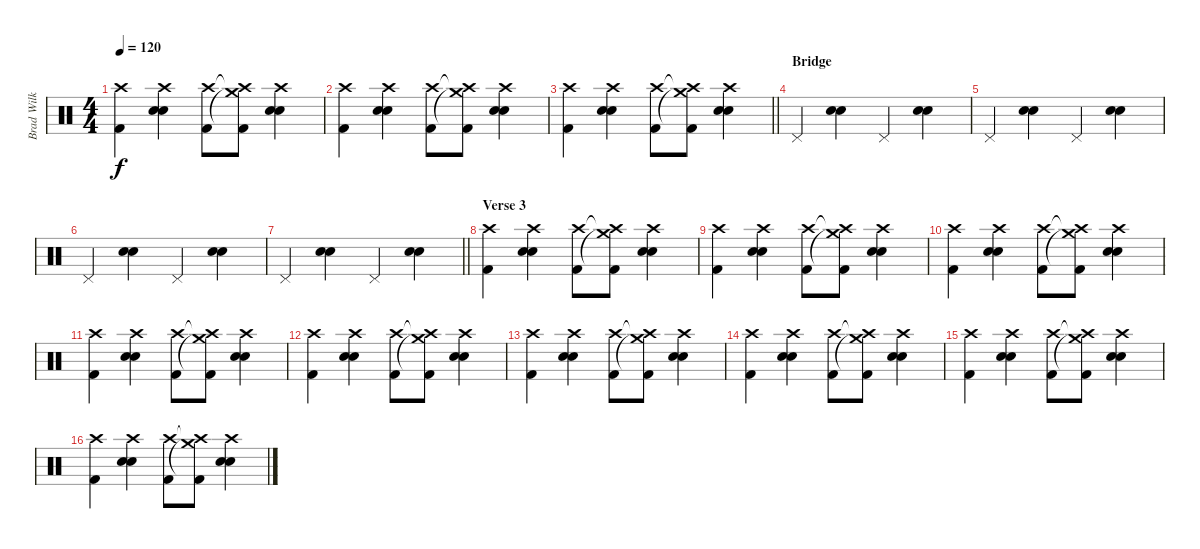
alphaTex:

\track ("Brad Wilk" "Brad Wilk") {instrument percussion}
\staff {score}
\articulation defaults
\ts (4 4)
\tempo 120
\clef neutral
\ks c
("Crash high (hit)" "Kick (hit) 2").4{dy f} ("Electric Snare (hit)" "Snare (hit) 2" "Crash high (hit)").4 ("Crash high (hit)" "Kick (hit) 2").8 ("Crash high (hit)"{t} "Crash medium (hit)"{t} "Kick (hit) 2").8 ("Electric Snare (hit)" "Snare (hit) 2" "Crash high (hit)").4 |
("Crash high (hit)" "Kick (hit) 2").4 ("Electric Snare (hit)" "Snare (hit) 2" "Crash high (hit)").4 ("Crash high (hit)" "Kick (hit) 2").8 ("Crash high (hit)"{t} "Crash medium (hit)"{t} "Kick (hit) 2").8 ("Electric Snare (hit)" "Snare (hit) 2" "Crash high (hit)").4 |
\barLineRight lightlight
("Crash high (hit)" "Kick (hit) 2").4 ("Electric Snare (hit)" "Snare (hit) 2" "Crash high (hit)").4 ("Crash high (hit)" "Kick (hit) 2").8 ("Crash high (hit)"{t} "Crash medium (hit)"{t} "Kick (hit) 2").8 ("Electric Snare (hit)" "Snare (hit) 2" "Crash high (hit)").4 |
\section ("" "Bridge")
"Pedal Hi-Hat (hit)".4 ("Electric Snare (hit)" "Snare (hit) 2").4 "Pedal Hi-Hat (hit)".4 ("Electric Snare (hit)" "Snare (hit) 2").4 |
"Pedal Hi-Hat (hit)".4 ("Electric Snare (hit)" "Snare (hit) 2").4 "Pedal Hi-Hat (hit)".4 ("Electric Snare (hit)" "Snare (hit) 2").4 |
"Pedal Hi-Hat (hit)".4 ("Electric Snare (hit)" "Snare (hit) 2").4 "Pedal Hi-Hat (hit)".4 ("Electric Snare (hit)" "Snare (hit) 2").4 |
\barLineRight lightlight "Pedal Hi-Hat (hit)".4
("Electric Snare (hit)" "Snare (hit) 2").4 "Pedal Hi-Hat (hit)".4 ("Electric Snare (hit)" "Snare (hit) 2").4 |
\section ("" "Verse 3")
("Crash high (hit)" "Kick (hit) 2").4 ("Electric Snare (hit)" "Snare (hit) 2" "Crash high (hit)").4 ("Crash high (hit)" "Kick (hit) 2").8 ("Crash high (hit)"{t} "Crash medium (hit)"{t} "Kick (hit) 2").8 ("Electric Snare (hit)" "Snare (hit) 2" "Crash high (hit)").4 |
("Crash high (hit)" "Kick (hit) 2").4 ("Electric Snare (hit)" "Snare (hit) 2" "Crash high (hit)").4 ("Crash high (hit)" "Kick (hit) 2").8 ("Crash high (hit)"{t} "Crash medium (hit)"{t} "Kick (hit) 2").8 ("Electric Snare (hit)" "Snare (hit) 2" "Crash high (hit)").4 |
("Crash high (hit)" "Kick (hit) 2").4 ("Electric Snare (hit)" "Snare (hit) 2" "Crash high (hit)").4 ("Crash high (hit)" "Kick (hit) 2").8 ("Crash high (hit)"{t} "Crash medium (hit)"{t} "Kick (hit) 2").8 ("Electric Snare (hit)" "Snare (hit) 2" "Crash high (hit)").4 |
("Crash high (hit)" "Kick (hit) 2").4 ("Electric Snare (hit)" "Snare (hit) 2" "Crash high (hit)").4 ("Crash high (hit)" "Kick (hit) 2").8 ("Crash high (hit)"{t} "Crash medium (hit)"{t} "Kick (hit) 2").8 ("Electric Snare (hit)" "Snare (hit) 2" "Crash high (hit)").4 |
("Crash high (hit)" "Kick (hit) 2").4 ("Electric Snare (hit)" "Snare (hit) 2" "Crash high (hit)").4 ("Crash high (hit)" "Kick (hit) 2").8 ("Crash high (hit)"{t} "Crash medium (hit)"{t} "Kick (hit) 2").8 ("Electric Snare (hit)" "Snare (hit) 2" "Crash high (hit)").4 |
("Crash high (hit)" "Kick (hit) 2").4 ("Electric Snare (hit)" "Snare (hit) 2" "Crash high (hit)").4 ("Crash high (hit)" "Kick (hit) 2").8 ("Crash high (hit)"{t} "Crash medium (hit)"{t} "Kick (hit) 2").8 ("Electric Snare (hit)" "Snare (hit) 2" "Crash high (hit)").4 |
("Crash high (hit)" "Kick (hit) 2").4 ("Electric Snare (hit)" "Snare (hit) 2" "Crash high (hit)").4 ("Crash high (hit)" "Kick (hit) 2").8 ("Crash high (hit)"{t} "Crash medium (hit)"{t} "Kick (hit) 2").8 ("Electric Snare (hit)" "Snare (hit) 2" "Crash high (hit)").4 |
("Crash high (hit)" "Kick (hit) 2").4 ("Electric Snare (hit)" "Snare (hit) 2" "Crash high (hit)").4 ("Crash high (hit)" "Kick (hit) 2").8 ("Crash high (hit)"{t} "Crash medium (hit)"{t} "Kick (hit) 2").8 ("Electric Snare (hit)" "Snare (hit) 2" "Crash high (hit)").4 |
("Crash high (hit)" "Kick (hit) 2").4 ("Electric Snare (hit)" "Snare (hit) 2" "Crash high (hit)").4 ("Crash high (hit)" "Kick (hit) 2").8 ("Crash high (hit)"{t} "Crash medium (hit)"{t} "Kick (hit) 2").8 ("Electric Snare (hit)" "Snare (hit) 2" "Crash high (hit)").4
